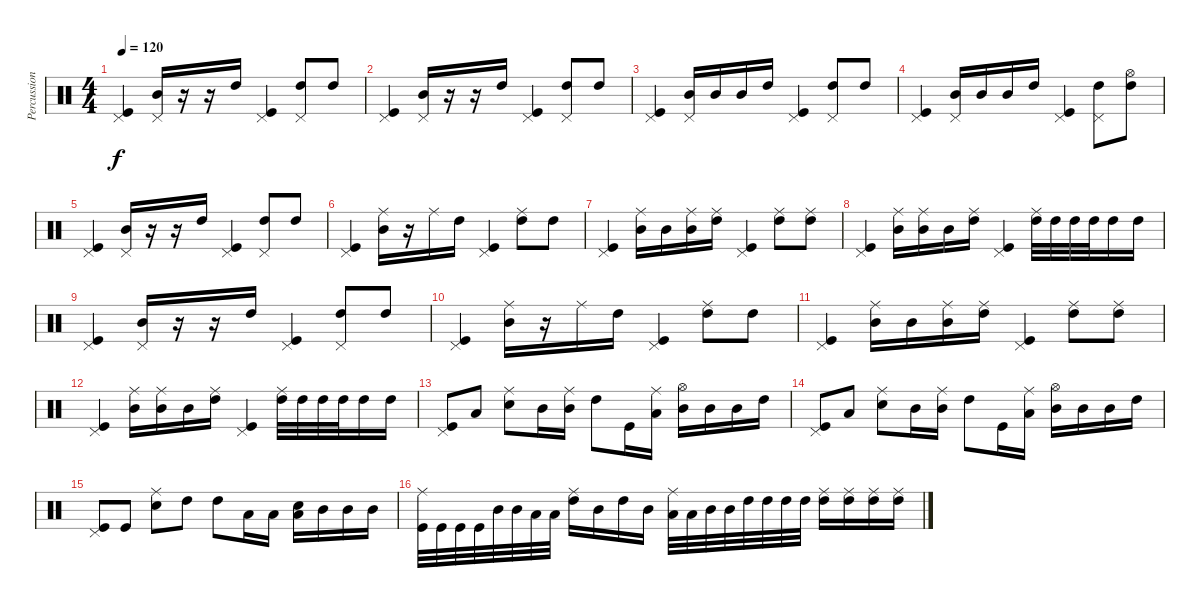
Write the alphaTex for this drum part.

\track ("Percussions" "Percussion") {instrument percussion}
\staff {score}
\articulation defaults
\ts (4 4)
\tempo 120
\clef neutral
\ks c
("Pedal Hi-Hat (hit)" "Kick (hit)").4{dy f} ("Pedal Hi-Hat (hit)" "Mid Tom (hit)").16 r.16 r.16 "High Tom (hit)".16 ("Pedal Hi-Hat (hit)" "Kick (hit)").4 ("Pedal Hi-Hat (hit)" "High Tom (hit)").8 "High Tom (hit)".8 |
("Pedal Hi-Hat (hit)" "Kick (hit)").4 ("Pedal Hi-Hat (hit)" "Mid Tom (hit)").16 r.16 r.16 "High Tom (hit)".16 ("Pedal Hi-Hat (hit)" "Kick (hit)").4 ("Pedal Hi-Hat (hit)" "High Tom (hit)").8 "High Tom (hit)".8 |
("Pedal Hi-Hat (hit)" "Kick (hit)").4 ("Pedal Hi-Hat (hit)" "Mid Tom (hit)").16 "Mid Tom (hit)".16 "Mid Tom (hit)".16 "High Tom (hit)".16 ("Pedal Hi-Hat (hit)" "Kick (hit)").4 ("Pedal Hi-Hat (hit)" "High Tom (hit)").8 "High Tom (hit)".8 |
("Pedal Hi-Hat (hit)" "Kick (hit)").4 ("Pedal Hi-Hat (hit)" "Mid Tom (hit)").16 "Mid Tom (hit)".16 "Mid Tom (hit)".16 "High Tom (hit)".16 ("Pedal Hi-Hat (hit)" "Kick (hit)").4 ("Pedal Hi-Hat (hit)" "High Tom (hit)").8 ("Hi-Hat (open)" "High Tom (hit)").8 |
("Pedal Hi-Hat (hit)" "Kick (hit)").4 ("Pedal Hi-Hat (hit)" "Mid Tom (hit)").16 r.16 r.16 "High Tom (hit)".16 ("Pedal Hi-Hat (hit)" "Kick (hit)").4 ("Pedal Hi-Hat (hit)" "High Tom (hit)").8 "High Tom (hit)".8 |
("Pedal Hi-Hat (hit)" "Kick (hit)").4 ("Ride (middle)" "Mid Tom (hit)").16 r.16 "Ride (middle)".16 "High Tom (hit)".16 ("Pedal Hi-Hat (hit)" "Kick (hit)").4 ("Ride (middle)" "High Tom (hit)").8 "High Tom (hit)".8 |
("Pedal Hi-Hat (hit)" "Kick (hit)").4 ("Ride (middle)" "Mid Tom (hit)").16 "Mid Tom (hit)".16 ("Ride (middle)" "Mid Tom (hit)").16 ("Ride (middle)" "High Tom (hit)").16 ("Pedal Hi-Hat (hit)" "Kick (hit)").4 ("Ride (middle)" "High Tom (hit)").8 ("Ride (middle)" "High Tom (hit)").8 |
("Pedal Hi-Hat (hit)" "Kick (hit)").4 ("Ride (middle)" "Mid Tom (hit)").16 ("Ride (middle)" "Mid Tom (hit)").16 "Mid Tom (hit)".16 ("Ride (middle)" "High Tom (hit)").16 ("Pedal Hi-Hat (hit)" "Kick (hit)").4 ("Ride (middle)" "High Tom (hit)").32 "High Tom (hit)".32 "High Tom (hit)".32 "High Tom (hit)".32 "High Tom (hit)".16 "High Tom (hit)".16 |
("Pedal Hi-Hat (hit)" "Kick (hit)").4 ("Pedal Hi-Hat (hit)" "Mid Tom (hit)").16 r.16 r.16 "High Tom (hit)".16 ("Pedal Hi-Hat (hit)" "Kick (hit)").4 ("Pedal Hi-Hat (hit)" "High Tom (hit)").8 "High Tom (hit)".8 |
("Pedal Hi-Hat (hit)" "Kick (hit)").4 ("Ride (middle)" "Mid Tom (hit)").16 r.16 "Ride (middle)".16 "High Tom (hit)".16 ("Pedal Hi-Hat (hit)" "Kick (hit)").4 ("Ride (middle)" "High Tom (hit)").8 "High Tom (hit)".8 |
("Pedal Hi-Hat (hit)" "Kick (hit)").4 ("Ride (middle)" "Mid Tom (hit)").16 "Mid Tom (hit)".16 ("Ride (middle)" "Mid Tom (hit)").16 ("Ride (middle)" "High Tom (hit)").16 ("Pedal Hi-Hat (hit)" "Kick (hit)").4 ("Ride (middle)" "High Tom (hit)").8 ("Ride (middle)" "High Tom (hit)").8 |
("Pedal Hi-Hat (hit)" "Kick (hit)").4 ("Ride (middle)" "Mid Tom (hit)").16 ("Ride (middle)" "Mid Tom (hit)").16 "Mid Tom (hit)".16 ("Ride (middle)" "High Tom (hit)").16 ("Pedal Hi-Hat (hit)" "Kick (hit)").4 ("Ride (middle)" "High Tom (hit)").32 "High Tom (hit)".32 "High Tom (hit)".32 "High Tom (hit)".32 "High Tom (hit)".16 "High Tom (hit)".16 |
("Pedal Hi-Hat (hit)" "Kick (hit)").8 "Low Tom (hit)".8 ("Ride (middle)" "Snare (hit) 2").8 "Mid Tom (hit)".16 ("Ride (middle)" "Mid Tom (hit)").16 "High Tom (hit)".8 "Kick (hit)".16 ("Ride (middle)" "Low Tom (hit)").16 ("Hi-Hat (open)" "Mid Tom (hit)").16 "Mid Tom (hit)".16 "Mid Tom (hit)".16 "High Tom (hit)".16 |
("Pedal Hi-Hat (hit)" "Kick (hit)").8 "Low Tom (hit)".8 ("Ride (middle)" "Snare (hit) 2").8 "Mid Tom (hit)".16 ("Ride (middle)" "Mid Tom (hit)").16 "High Tom (hit)".8 "Kick (hit)".16 ("Ride (middle)" "Low Tom (hit)").16 ("Hi-Hat (open)" "Mid Tom (hit)").16 "Mid Tom (hit)".16 "Mid Tom (hit)".16 "High Tom (hit)".16 |
("Pedal Hi-Hat (hit)" "Kick (hit)").8 "Kick (hit)".8 ("Ride (middle)" "Snare (hit) 2").8 "High Tom (hit)".8 "High Tom (hit)".8 "Low Tom (hit)".16 "Low Tom (hit)".16 ("Low Tom (hit)" "Snare (hit) 2").16 "Mid Tom (hit)".16 "Mid Tom (hit)".16 "Mid Tom (hit)".16 |
("Ride (middle)" "Kick (hit)").32 "Kick (hit)".32 "Kick (hit)".32 "Kick (hit)".32 "Mid Tom (hit)".32 "Mid Tom (hit)".32 "Low Tom (hit)".32 "Low Tom (hit)".32 ("Ride (middle)" "High Tom (hit)").16 "Mid Tom (hit)".16 "High Tom (hit)".16 "Mid Tom (hit)".16 ("Ride (middle)" "Low Tom (hit)").32 "Low Tom (hit)".32 "Mid Tom (hit)".32 "Mid Tom (hit)".32 "High Tom (hit)".32 "High Tom (hit)".32 "High Tom (hit)".32 "High Tom (hit)".32 ("Ride (middle)" "High Tom (hit)").16 ("Ride (middle)" "High Tom (hit)").16 ("Ride (middle)" "High Tom (hit)").16 ("Ride (middle)" "High Tom (hit)").16
